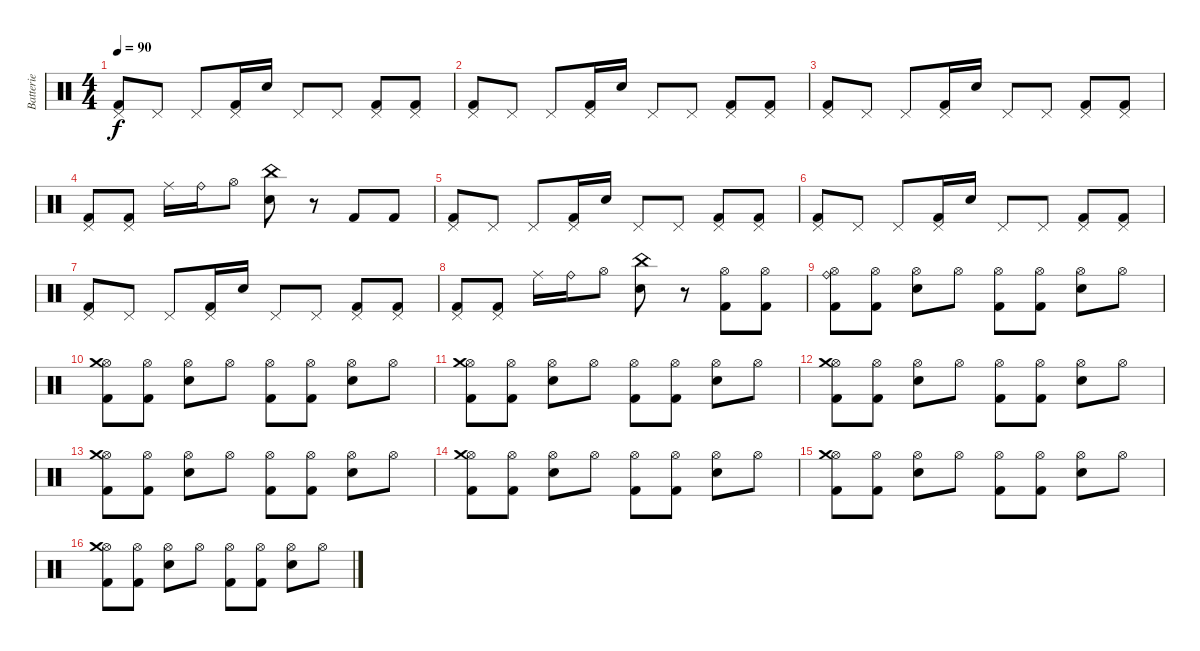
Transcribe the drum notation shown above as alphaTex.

\track ("Batterie" "Batterie") {instrument percussion}
\staff {score}
\articulation defaults
\ts (4 4)
\tempo 90
\clef neutral
\ks c
("Pedal Hi-Hat (hit)" "Kick (hit) 2").8{dy f} "Pedal Hi-Hat (hit)".8 "Pedal Hi-Hat (hit)".8 ("Pedal Hi-Hat (hit)" "Kick (hit) 2").16 "Snare (hit) 2".16 "Pedal Hi-Hat (hit)".8 "Pedal Hi-Hat (hit)".8 ("Pedal Hi-Hat (hit)" "Kick (hit) 2").8 ("Pedal Hi-Hat (hit)" "Kick (hit) 2").8 |
("Pedal Hi-Hat (hit)" "Kick (hit) 2").8 "Pedal Hi-Hat (hit)".8 "Pedal Hi-Hat (hit)".8 ("Pedal Hi-Hat (hit)" "Kick (hit) 2").16 "Snare (hit) 2".16 "Pedal Hi-Hat (hit)".8 "Pedal Hi-Hat (hit)".8 ("Pedal Hi-Hat (hit)" "Kick (hit) 2").8 ("Pedal Hi-Hat (hit)" "Kick (hit) 2").8 |
("Pedal Hi-Hat (hit)" "Kick (hit) 2").8 "Pedal Hi-Hat (hit)".8 "Pedal Hi-Hat (hit)".8 ("Pedal Hi-Hat (hit)" "Kick (hit) 2").16 "Snare (hit) 2".16 "Pedal Hi-Hat (hit)".8 "Pedal Hi-Hat (hit)".8 ("Pedal Hi-Hat (hit)" "Kick (hit) 2").8 ("Pedal Hi-Hat (hit)" "Kick (hit) 2").8 |
("Pedal Hi-Hat (hit)" "Kick (hit) 2").8 ("Pedal Hi-Hat (hit)" "Kick (hit) 2").8 "Ride (middle)".16 "Ride (bell)".16 "Hi-Hat (open)".8 ("China (hit)" "Snare (hit) 2").8 r.8 "Kick (hit) 2".8 "Kick (hit) 2".8 |
("Pedal Hi-Hat (hit)" "Kick (hit) 2").8 "Pedal Hi-Hat (hit)".8 "Pedal Hi-Hat (hit)".8 ("Pedal Hi-Hat (hit)" "Kick (hit) 2").16 "Snare (hit) 2".16 "Pedal Hi-Hat (hit)".8 "Pedal Hi-Hat (hit)".8 ("Pedal Hi-Hat (hit)" "Kick (hit) 2").8 ("Pedal Hi-Hat (hit)" "Kick (hit) 2").8 |
("Pedal Hi-Hat (hit)" "Kick (hit) 2").8 "Pedal Hi-Hat (hit)".8 "Pedal Hi-Hat (hit)".8 ("Pedal Hi-Hat (hit)" "Kick (hit) 2").16 "Snare (hit) 2".16 "Pedal Hi-Hat (hit)".8 "Pedal Hi-Hat (hit)".8 ("Pedal Hi-Hat (hit)" "Kick (hit) 2").8 ("Pedal Hi-Hat (hit)" "Kick (hit) 2").8 |
("Pedal Hi-Hat (hit)" "Kick (hit) 2").8 "Pedal Hi-Hat (hit)".8 "Pedal Hi-Hat (hit)".8 ("Pedal Hi-Hat (hit)" "Kick (hit) 2").16 "Snare (hit) 2".16 "Pedal Hi-Hat (hit)".8 "Pedal Hi-Hat (hit)".8 ("Pedal Hi-Hat (hit)" "Kick (hit) 2").8 ("Pedal Hi-Hat (hit)" "Kick (hit) 2").8 |
("Pedal Hi-Hat (hit)" "Kick (hit) 2").8 ("Pedal Hi-Hat (hit)" "Kick (hit) 2").8 "Ride (middle)".16 "Ride (bell)".16 "Hi-Hat (open)".8 ("China (hit)" "Snare (hit) 2").8 r.8 ("Hi-Hat (open)" "Kick (hit) 2").8 ("Hi-Hat (open)" "Kick (hit) 2").8 |
("Hi-Hat (open)" "Kick (hit) 2" "Ride (bell)").8 ("Hi-Hat (open)" "Kick (hit) 2").8 ("Hi-Hat (open)" "Snare (hit) 2").8 "Hi-Hat (open)".8 ("Hi-Hat (open)" "Kick (hit) 2").8 ("Hi-Hat (open)" "Kick (hit) 2").8 ("Hi-Hat (open)" "Snare (hit) 2").8 "Hi-Hat (open)".8 |
("Hi-Hat (open)" "Kick (hit) 2" "Crash medium (hit)").8 ("Hi-Hat (open)" "Kick (hit) 2").8 ("Hi-Hat (open)" "Snare (hit) 2").8 "Hi-Hat (open)".8 ("Hi-Hat (open)" "Kick (hit) 2").8 ("Hi-Hat (open)" "Kick (hit) 2").8 ("Hi-Hat (open)" "Snare (hit) 2").8 "Hi-Hat (open)".8 |
("Hi-Hat (open)" "Kick (hit) 2" "Crash medium (hit)").8 ("Hi-Hat (open)" "Kick (hit) 2").8 ("Hi-Hat (open)" "Snare (hit) 2").8 "Hi-Hat (open)".8 ("Hi-Hat (open)" "Kick (hit) 2").8 ("Hi-Hat (open)" "Kick (hit) 2").8 ("Hi-Hat (open)" "Snare (hit) 2").8 "Hi-Hat (open)".8 |
("Hi-Hat (open)" "Kick (hit) 2" "Crash medium (hit)").8 ("Hi-Hat (open)" "Kick (hit) 2").8 ("Hi-Hat (open)" "Snare (hit) 2").8 "Hi-Hat (open)".8 ("Hi-Hat (open)" "Kick (hit) 2").8 ("Hi-Hat (open)" "Kick (hit) 2").8 ("Hi-Hat (open)" "Snare (hit) 2").8 "Hi-Hat (open)".8 |
("Hi-Hat (open)" "Kick (hit) 2" "Crash medium (hit)").8 ("Hi-Hat (open)" "Kick (hit) 2").8 ("Hi-Hat (open)" "Snare (hit) 2").8 "Hi-Hat (open)".8 ("Hi-Hat (open)" "Kick (hit) 2").8 ("Hi-Hat (open)" "Kick (hit) 2").8 ("Hi-Hat (open)" "Snare (hit) 2").8 "Hi-Hat (open)".8 |
("Hi-Hat (open)" "Kick (hit) 2" "Crash medium (hit)").8 ("Hi-Hat (open)" "Kick (hit) 2").8 ("Hi-Hat (open)" "Snare (hit) 2").8 "Hi-Hat (open)".8 ("Hi-Hat (open)" "Kick (hit) 2").8 ("Hi-Hat (open)" "Kick (hit) 2").8 ("Hi-Hat (open)" "Snare (hit) 2").8 "Hi-Hat (open)".8 |
("Hi-Hat (open)" "Kick (hit) 2" "Crash medium (hit)").8 ("Hi-Hat (open)" "Kick (hit) 2").8 ("Hi-Hat (open)" "Snare (hit) 2").8 "Hi-Hat (open)".8 ("Hi-Hat (open)" "Kick (hit) 2").8 ("Hi-Hat (open)" "Kick (hit) 2").8 ("Hi-Hat (open)" "Snare (hit) 2").8 "Hi-Hat (open)".8 |
("Hi-Hat (open)" "Kick (hit) 2" "Crash medium (hit)").8 ("Hi-Hat (open)" "Kick (hit) 2").8 ("Hi-Hat (open)" "Snare (hit) 2").8 "Hi-Hat (open)".8 ("Hi-Hat (open)" "Kick (hit) 2").8 ("Hi-Hat (open)" "Kick (hit) 2").8 ("Hi-Hat (open)" "Snare (hit) 2").8 "Hi-Hat (open)".8
